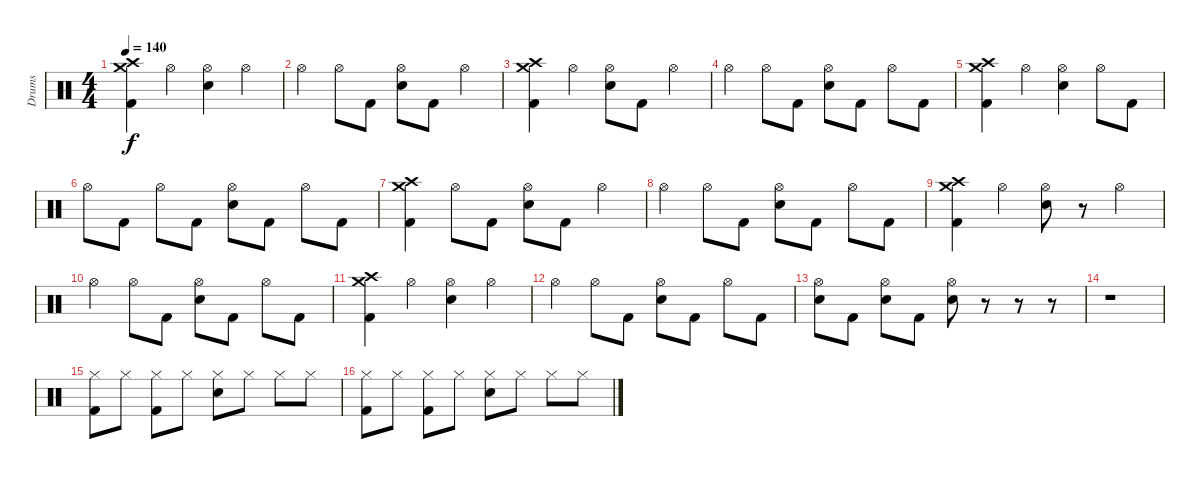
\track ("Drums" "Drums") {instrument percussion}
\staff {score}
\articulation defaults
\ts (4 4)
\tempo 140
\clef neutral
\ks c
("Crash medium (hit)" "Crash high (hit)" "Kick (hit) 2").4{dy f} "Hi-Hat (open)".4 ("Hi-Hat (open)" "Electric Snare (hit)").4 "Hi-Hat (open)".4 |
"Hi-Hat (open)".4 "Hi-Hat (open)".8 "Kick (hit) 2".8 ("Hi-Hat (open)" "Electric Snare (hit)").8 "Kick (hit) 2".8 "Hi-Hat (open)".4 |
("Crash medium (hit)" "Crash high (hit)" "Kick (hit) 2").4 "Hi-Hat (open)".4 ("Hi-Hat (open)" "Electric Snare (hit)").8 "Kick (hit) 2".8 "Hi-Hat (open)".4 |
"Hi-Hat (open)".4 "Hi-Hat (open)".8 "Kick (hit) 2".8 ("Hi-Hat (open)" "Electric Snare (hit)").8 "Kick (hit) 2".8 "Hi-Hat (open)".8 "Kick (hit) 2".8 |
("Crash medium (hit)" "Crash high (hit)" "Kick (hit) 2").4 "Hi-Hat (open)".4 ("Hi-Hat (open)" "Electric Snare (hit)").4 "Hi-Hat (open)".8 "Kick (hit) 2".8 |
"Hi-Hat (open)".8 "Kick (hit) 2".8 "Hi-Hat (open)".8 "Kick (hit) 2".8 ("Hi-Hat (open)" "Electric Snare (hit)").8 "Kick (hit) 2".8 "Hi-Hat (open)".8 "Kick (hit) 2".8 |
("Crash medium (hit)" "Crash high (hit)" "Kick (hit) 2").4 "Hi-Hat (open)".8 "Kick (hit) 2".8 ("Hi-Hat (open)" "Electric Snare (hit)").8 "Kick (hit) 2".8 "Hi-Hat (open)".4 |
"Hi-Hat (open)".4 "Hi-Hat (open)".8 "Kick (hit) 2".8 ("Hi-Hat (open)" "Electric Snare (hit)").8 "Kick (hit) 2".8 "Hi-Hat (open)".8 "Kick (hit) 2".8 |
("Crash medium (hit)" "Crash high (hit)" "Kick (hit) 2").4 "Hi-Hat (open)".4 ("Hi-Hat (open)" "Electric Snare (hit)").8 r.8 "Hi-Hat (open)".4 |
"Hi-Hat (open)".4 "Hi-Hat (open)".8 "Kick (hit) 2".8 ("Hi-Hat (open)" "Electric Snare (hit)").8 "Kick (hit) 2".8 "Hi-Hat (open)".8 "Kick (hit) 2".8 |
("Crash medium (hit)" "Crash high (hit)" "Kick (hit) 2").4 "Hi-Hat (open)".4 ("Hi-Hat (open)" "Electric Snare (hit)").4 "Hi-Hat (open)".4 |
"Hi-Hat (open)".4 "Hi-Hat (open)".8 "Kick (hit) 2".8 ("Hi-Hat (open)" "Electric Snare (hit)").8 "Kick (hit) 2".8 "Hi-Hat (open)".8 "Kick (hit) 2".8 |
("Hi-Hat (open)" "Electric Snare (hit)").8 "Kick (hit) 2".8 ("Hi-Hat (open)" "Electric Snare (hit)").8 "Kick (hit) 2".8 ("Hi-Hat (open)" "Electric Snare (hit)").8 r.8 r.8 r.8 |
r.1 |
("Hi-Hat (closed)" "Kick (hit) 2").8 "Hi-Hat (closed)".8 ("Hi-Hat (closed)" "Kick (hit) 2").8 "Hi-Hat (closed)".8 ("Hi-Hat (closed)" "Electric Snare (hit)").8 "Hi-Hat (closed)".8 "Hi-Hat (closed)".8 "Hi-Hat (closed)".8 |
("Hi-Hat (closed)" "Kick (hit) 2").8 "Hi-Hat (closed)".8 ("Hi-Hat (closed)" "Kick (hit) 2").8 "Hi-Hat (closed)".8 ("Hi-Hat (closed)" "Electric Snare (hit)").8 "Hi-Hat (closed)".8 "Hi-Hat (closed)".8 "Hi-Hat (closed)".8
